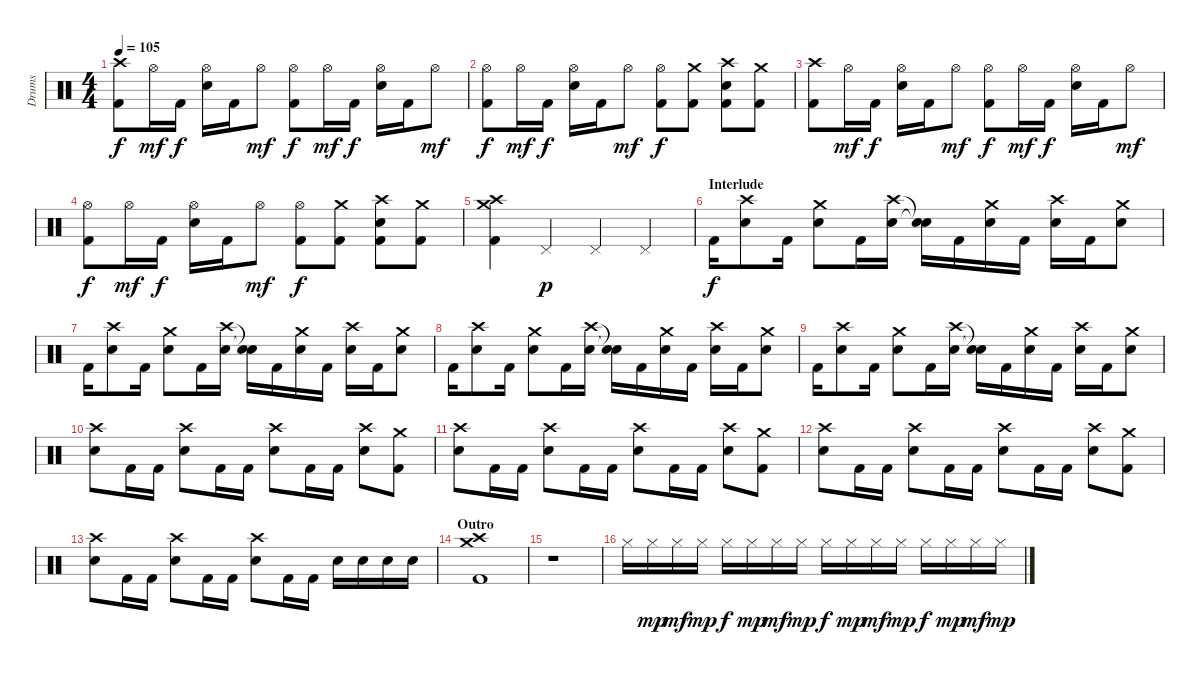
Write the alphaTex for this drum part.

\track ("Drums" "Drums") {instrument percussion}
\staff {score}
\articulation defaults
\ts (4 4)
\tempo 105
\clef neutral
\ks c
("Crash high (hit)" "Kick (hit) 2").8{dy f} "Hi-Hat (open)".16{dy mf} "Kick (hit) 2".16{dy f} ("Hi-Hat (open)" "Snare (hit) 2").16 "Kick (hit) 2".16 "Hi-Hat (open)".8{dy mf} ("Hi-Hat (open)" "Kick (hit) 2").8{dy f} "Hi-Hat (open)".16{dy mf} "Kick (hit) 2".16{dy f} ("Hi-Hat (open)" "Snare (hit) 2").16 "Kick (hit) 2".16 "Hi-Hat (open)".8{dy mf} |
("Hi-Hat (open)" "Kick (hit) 2").8{dy f} "Hi-Hat (open)".16{dy mf} "Kick (hit) 2".16{dy f} ("Hi-Hat (open)" "Snare (hit) 2").16 "Kick (hit) 2".16 "Hi-Hat (open)".8{dy mf} ("Hi-Hat (open)" "Kick (hit) 2").8{dy f} ("Crash medium (hit)" "Kick (hit) 2").8 ("Crash high (hit)" "Snare (hit) 2" "Kick (hit) 2").8 ("Crash medium (hit)" "Kick (hit) 2").8 |
("Crash high (hit)" "Kick (hit) 2").8 "Hi-Hat (open)".16{dy mf} "Kick (hit) 2".16{dy f} ("Hi-Hat (open)" "Snare (hit) 2").16 "Kick (hit) 2".16 "Hi-Hat (open)".8{dy mf} ("Hi-Hat (open)" "Kick (hit) 2").8{dy f} "Hi-Hat (open)".16{dy mf} "Kick (hit) 2".16{dy f} ("Hi-Hat (open)" "Snare (hit) 2").16 "Kick (hit) 2".16 "Hi-Hat (open)".8{dy mf} |
("Hi-Hat (open)" "Kick (hit) 2").8{dy f} "Hi-Hat (open)".16{dy mf} "Kick (hit) 2".16{dy f} ("Hi-Hat (open)" "Snare (hit) 2").16 "Kick (hit) 2".16 "Hi-Hat (open)".8{dy mf} ("Hi-Hat (open)" "Kick (hit) 2").8{dy f} ("Crash medium (hit)" "Kick (hit) 2").8 ("Crash high (hit)" "Snare (hit) 2" "Kick (hit) 2").8 ("Crash medium (hit)" "Kick (hit) 2").8 |
("Crash medium (hit)" "Crash high (hit)" "Kick (hit) 2").4 "Pedal Hi-Hat (hit)".4{dy p} "Pedal Hi-Hat (hit)".4 "Pedal Hi-Hat (hit)".4 |
\section ("" "Interlude")
"Kick (hit) 2".16{dy f} ("Crash high (hit)" "Snare (hit) 2").8 "Kick (hit) 2".16 ("Crash medium (hit)" "Snare (hit) 2").8 "Kick (hit) 2".16 ("Crash high (hit)" "Snare (hit) 2").16 ("Snare (hit)"{t} "Snare (hit)"{t}).16 "Kick (hit) 2".16 ("Crash medium (hit)" "Snare (hit) 2").16 "Kick (hit) 2".16 ("Crash high (hit)" "Snare (hit) 2").16 "Kick (hit) 2".16 ("Crash medium (hit)" "Snare (hit) 2").8 |
"Kick (hit) 2".16 ("Crash high (hit)" "Snare (hit) 2").8 "Kick (hit) 2".16 ("Crash medium (hit)" "Snare (hit) 2").8 "Kick (hit) 2".16 ("Crash high (hit)" "Snare (hit) 2").16 ("Snare (hit)"{t} "Snare (hit)"{t}).16 "Kick (hit) 2".16 ("Crash medium (hit)" "Snare (hit) 2").16 "Kick (hit) 2".16 ("Crash high (hit)" "Snare (hit) 2").16 "Kick (hit) 2".16 ("Crash medium (hit)" "Snare (hit) 2").8 |
"Kick (hit) 2".16 ("Crash high (hit)" "Snare (hit) 2").8 "Kick (hit) 2".16 ("Crash medium (hit)" "Snare (hit) 2").8 "Kick (hit) 2".16 ("Crash high (hit)" "Snare (hit) 2").16 ("Snare (hit)"{t} "Snare (hit)"{t}).16 "Kick (hit) 2".16 ("Crash medium (hit)" "Snare (hit) 2").16 "Kick (hit) 2".16 ("Crash high (hit)" "Snare (hit) 2").16 "Kick (hit) 2".16 ("Crash medium (hit)" "Snare (hit) 2").8 |
"Kick (hit) 2".16 ("Crash high (hit)" "Snare (hit) 2").8 "Kick (hit) 2".16 ("Crash medium (hit)" "Snare (hit) 2").8 "Kick (hit) 2".16 ("Crash high (hit)" "Snare (hit) 2").16 ("Snare (hit)"{t} "Snare (hit)"{t}).16 "Kick (hit) 2".16 ("Crash medium (hit)" "Snare (hit) 2").16 "Kick (hit) 2".16 ("Crash high (hit)" "Snare (hit) 2").16 "Kick (hit) 2".16 ("Crash medium (hit)" "Snare (hit) 2").8 |
("Crash high (hit)" "Snare (hit) 2").8 "Kick (hit) 2".16 "Kick (hit) 2".16 ("Crash high (hit)" "Snare (hit) 2").8 "Kick (hit) 2".16 "Kick (hit) 2".16 ("Crash high (hit)" "Snare (hit) 2").8 "Kick (hit) 2".16 "Kick (hit) 2".16 ("Crash high (hit)" "Snare (hit) 2").8 ("Crash medium (hit)" "Kick (hit) 2").8 |
("Crash high (hit)" "Snare (hit) 2").8 "Kick (hit) 2".16 "Kick (hit) 2".16 ("Crash high (hit)" "Snare (hit) 2").8 "Kick (hit) 2".16 "Kick (hit) 2".16 ("Crash high (hit)" "Snare (hit) 2").8 "Kick (hit) 2".16 "Kick (hit) 2".16 ("Crash high (hit)" "Snare (hit) 2").8 ("Crash medium (hit)" "Kick (hit) 2").8 |
("Crash high (hit)" "Snare (hit) 2").8 "Kick (hit) 2".16 "Kick (hit) 2".16 ("Crash high (hit)" "Snare (hit) 2").8 "Kick (hit) 2".16 "Kick (hit) 2".16 ("Crash high (hit)" "Snare (hit) 2").8 "Kick (hit) 2".16 "Kick (hit) 2".16 ("Crash high (hit)" "Snare (hit) 2").8 ("Crash medium (hit)" "Kick (hit) 2").8 |
("Crash high (hit)" "Snare (hit) 2").8 "Kick (hit) 2".16 "Kick (hit) 2".16 ("Crash high (hit)" "Snare (hit) 2").8 "Kick (hit) 2".16 "Kick (hit) 2".16 ("Crash high (hit)" "Snare (hit) 2").8 "Kick (hit) 2".16 "Kick (hit) 2".16 "Snare (hit) 2".16 "Snare (hit) 2".16 "Snare (hit) 2".16 "Snare (hit) 2".16 |
\section ("" "Outro")
("Crash medium (hit)" "Crash high (hit)" "Kick (hit) 2").1 |
r.1 |
"Hi-Hat (closed)".16 "Hi-Hat (closed)".16{dy mp} "Hi-Hat (closed)".16{dy mf} "Hi-Hat (closed)".16{dy mp} "Hi-Hat (closed)".16{dy f} "Hi-Hat (closed)".16{dy mp} "Hi-Hat (closed)".16{dy mf} "Hi-Hat (closed)".16{dy mp} "Hi-Hat (closed)".16{dy f} "Hi-Hat (closed)".16{dy mp} "Hi-Hat (closed)".16{dy mf} "Hi-Hat (closed)".16{dy mp} "Hi-Hat (closed)".16{dy f} "Hi-Hat (closed)".16{dy mp} "Hi-Hat (closed)".16{dy mf} "Hi-Hat (closed)".16{dy mp}
